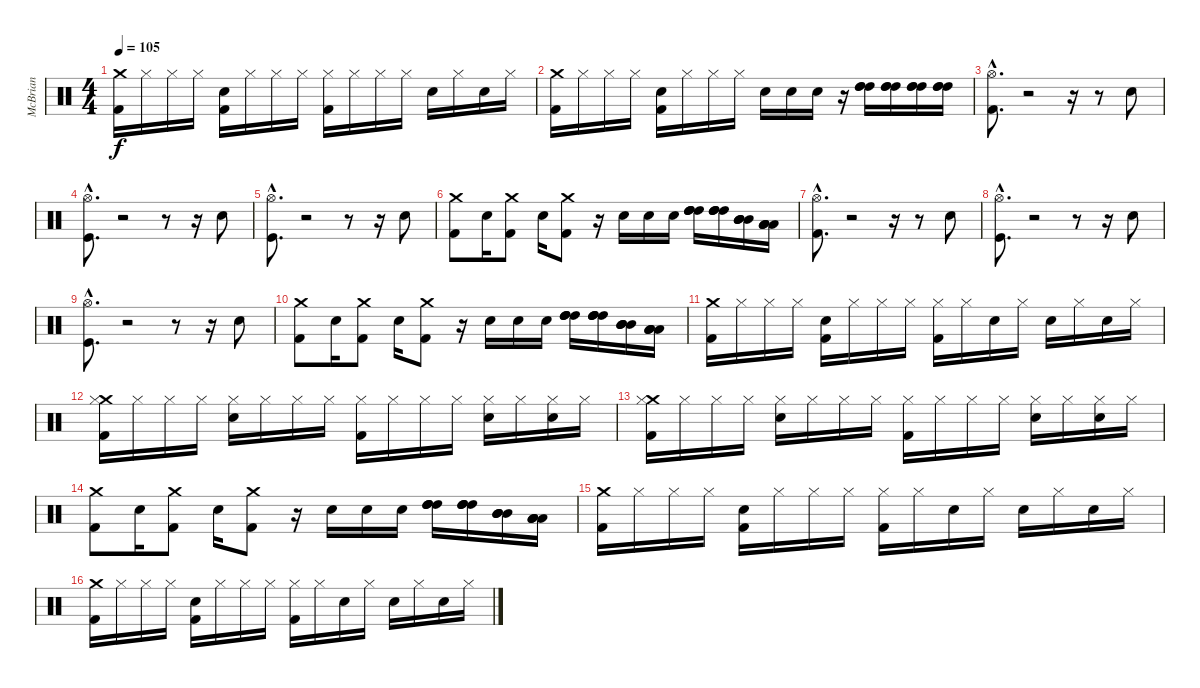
\track ("McBrian" "McBrian") {instrument percussion}
\staff {score}
\articulation defaults
\ts (4 4)
\tempo 105
\clef neutral
\ks c
("Crash medium (hit)" "Kick (hit) 2").16{dy f} "Hi-Hat (closed)".16 "Hi-Hat (closed)".16 "Hi-Hat (closed)".16 ("Kick (hit) 2" "Snare (hit) 2").16 "Hi-Hat (closed)".16 "Hi-Hat (closed)".16 "Hi-Hat (closed)".16 ("Kick (hit) 2" "Hi-Hat (closed)").16 "Hi-Hat (closed)".16 "Hi-Hat (closed)".16 "Hi-Hat (closed)".16 "Snare (hit) 2".16 "Hi-Hat (closed)".16 "Snare (hit) 2".16 "Hi-Hat (closed)".16 |
("Crash medium (hit)" "Kick (hit) 2").16 "Hi-Hat (closed)".16 "Hi-Hat (closed)".16 "Hi-Hat (closed)".16 ("Snare (hit) 2" "Kick (hit) 2").16 "Hi-Hat (closed)".16 "Hi-Hat (closed)".16 "Hi-Hat (closed)".16 "Snare (hit) 2".16 "Snare (hit) 2".16 "Snare (hit) 2".16 r.16 ("High Tom (hit)" "High Tom (hit)" "High Tom (hit)").16 ("High Tom (hit)" "High Tom (hit)" "High Tom (hit)").16 ("High Tom (hit)" "High Tom (hit)" "High Tom (hit)").16 ("High Tom (hit)" "High Tom (hit)" "High Tom (hit)").16 |
("Hi-Hat (open)"{hac} "Kick (hit) 2"{hac}).8{d} r.2 r.16 r.8 "Snare (hit) 2".8 |
("Hi-Hat (open)"{hac} "Kick (hit)"{hac}).8{d} r.2 r.8 r.16 "Snare (hit) 2".8 |
("Hi-Hat (open)"{hac} "Kick (hit)"{hac}).8{d} r.2 r.8 r.16 "Snare (hit) 2".8 |
("Kick (hit) 2" "Crash medium (hit)").8 "Snare (hit) 2".16 ("Kick (hit) 2" "Crash medium (hit)").8 "Snare (hit) 2".16 ("Kick (hit) 2" "Crash medium (hit)").8 r.16 "Snare (hit) 2".16 "Snare (hit) 2".16 "Snare (hit) 2".16 ("High Tom (hit)" "High Tom (hit)" "High Tom (hit)" "High Tom (hit)").16 ("High Tom (hit)" "High Tom (hit)" "High Tom (hit)" "High Tom (hit)").16 ("Mid Tom (hit)" "Mid Tom (hit)" "Mid Tom (hit)" "Mid Tom (hit)").16 ("Low Tom (hit)" "Low Tom (hit)" "Low Tom (hit)" "Low Tom (hit)").16 |
("Hi-Hat (open)"{hac} "Kick (hit) 2"{hac}).8{d} r.2 r.16 r.8 "Snare (hit) 2".8 |
("Hi-Hat (open)"{hac} "Kick (hit)"{hac}).8{d} r.2 r.8 r.16 "Snare (hit) 2".8 |
("Hi-Hat (open)"{hac} "Kick (hit)"{hac}).8{d} r.2 r.8 r.16 "Snare (hit) 2".8 |
("Kick (hit) 2" "Crash medium (hit)").8 "Snare (hit) 2".16 ("Kick (hit) 2" "Crash medium (hit)").8 "Snare (hit) 2".16 ("Kick (hit) 2" "Crash medium (hit)").8 r.16 "Snare (hit) 2".16 "Snare (hit) 2".16 "Snare (hit) 2".16 ("High Tom (hit)" "High Tom (hit)" "High Tom (hit)" "High Tom (hit)").16 ("High Tom (hit)" "High Tom (hit)" "High Tom (hit)" "High Tom (hit)").16 ("Mid Tom (hit)" "Mid Tom (hit)" "Mid Tom (hit)" "Mid Tom (hit)").16 ("Low Tom (hit)" "Low Tom (hit)" "Low Tom (hit)" "Low Tom (hit)").16 |
("Crash medium (hit)" "Kick (hit) 2").16 "Hi-Hat (closed)".16 "Hi-Hat (closed)".16 "Hi-Hat (closed)".16 ("Snare (hit) 2" "Kick (hit) 2").16 "Hi-Hat (closed)".16 "Hi-Hat (closed)".16 "Hi-Hat (closed)".16 ("Hi-Hat (closed)" "Kick (hit) 2").16 "Hi-Hat (closed)".16 "Snare (hit)".16 "Hi-Hat (closed)".16 "Snare (hit) 2".16 "Hi-Hat (closed)".16 "Snare (hit) 2".16 "Hi-Hat (closed)".16 |
("Crash medium (hit)" "Hi-Hat (closed)" "Kick (hit) 2").16 "Hi-Hat (closed)".16 "Hi-Hat (closed)".16 "Hi-Hat (closed)".16 ("Hi-Hat (closed)" "Snare (hit) 2").16 "Hi-Hat (closed)".16 "Hi-Hat (closed)".16 "Hi-Hat (closed)".16 ("Hi-Hat (closed)" "Kick (hit) 2").16 "Hi-Hat (closed)".16 "Hi-Hat (closed)".16 "Hi-Hat (closed)".16 ("Hi-Hat (closed)" "Snare (hit) 2").16 "Hi-Hat (closed)".16 ("Hi-Hat (closed)" "Snare (hit) 2").16 "Hi-Hat (closed)".16 |
("Crash medium (hit)" "Hi-Hat (closed)" "Kick (hit) 2").16 "Hi-Hat (closed)".16 "Hi-Hat (closed)".16 "Hi-Hat (closed)".16 ("Hi-Hat (closed)" "Snare (hit) 2").16 "Hi-Hat (closed)".16 "Hi-Hat (closed)".16 "Hi-Hat (closed)".16 ("Hi-Hat (closed)" "Kick (hit) 2").16 "Hi-Hat (closed)".16 "Hi-Hat (closed)".16 "Hi-Hat (closed)".16 ("Hi-Hat (closed)" "Snare (hit) 2").16 "Hi-Hat (closed)".16 ("Hi-Hat (closed)" "Snare (hit) 2").16 "Hi-Hat (closed)".16 |
("Kick (hit) 2" "Crash medium (hit)").8 "Snare (hit) 2".16 ("Kick (hit) 2" "Crash medium (hit)").8 "Snare (hit) 2".16 ("Kick (hit) 2" "Crash medium (hit)").8 r.16 "Snare (hit) 2".16 "Snare (hit) 2".16 "Snare (hit) 2".16 ("High Tom (hit)" "High Tom (hit)" "High Tom (hit)" "High Tom (hit)").16 ("High Tom (hit)" "High Tom (hit)" "High Tom (hit)" "High Tom (hit)").16 ("Mid Tom (hit)" "Mid Tom (hit)" "Mid Tom (hit)" "Mid Tom (hit)").16 ("Low Tom (hit)" "Low Tom (hit)" "Low Tom (hit)" "Low Tom (hit)").16 |
("Crash medium (hit)" "Kick (hit) 2").16 "Hi-Hat (closed)".16 "Hi-Hat (closed)".16 "Hi-Hat (closed)".16 ("Snare (hit) 2" "Kick (hit) 2").16 "Hi-Hat (closed)".16 "Hi-Hat (closed)".16 "Hi-Hat (closed)".16 ("Hi-Hat (closed)" "Kick (hit) 2").16 "Hi-Hat (closed)".16 "Snare (hit)".16 "Hi-Hat (closed)".16 "Snare (hit) 2".16 "Hi-Hat (closed)".16 "Snare (hit) 2".16 "Hi-Hat (closed)".16 |
("Crash medium (hit)" "Kick (hit) 2").16 "Hi-Hat (closed)".16 "Hi-Hat (closed)".16 "Hi-Hat (closed)".16 ("Snare (hit) 2" "Kick (hit) 2").16 "Hi-Hat (closed)".16 "Hi-Hat (closed)".16 "Hi-Hat (closed)".16 ("Hi-Hat (closed)" "Kick (hit) 2").16 "Hi-Hat (closed)".16 "Snare (hit)".16 "Hi-Hat (closed)".16 "Snare (hit) 2".16 "Hi-Hat (closed)".16 "Snare (hit) 2".16 "Hi-Hat (closed)".16
